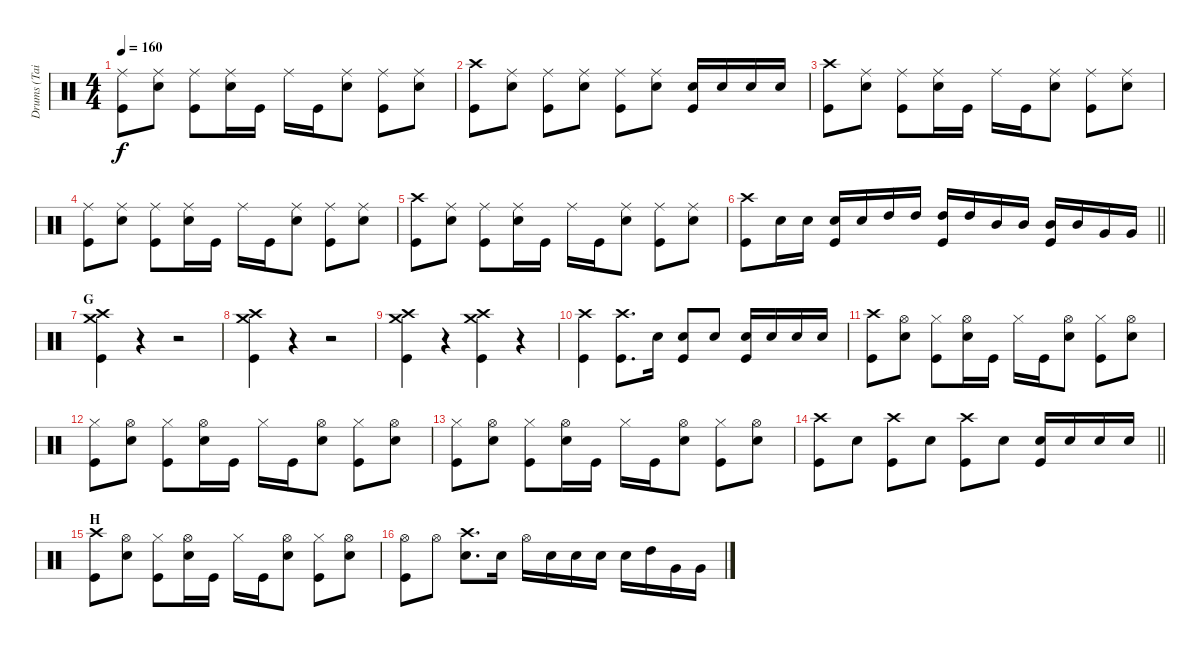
\track ("Drums (Tainaka Ritsu)" "Drums (Tai") {instrument percussion}
\staff {score}
\articulation defaults
\ts (4 4)
\tempo 160
\clef neutral
\ks c
("Ride (middle)" "Kick (hit)").8{dy f} ("Ride (middle)" "Snare (hit) 2").8 ("Ride (middle)" "Kick (hit)").8 ("Ride (middle)" "Snare (hit) 2").16 "Kick (hit)".16 "Ride (middle)".16 "Kick (hit)".16 ("Ride (middle)" "Snare (hit) 2").8 ("Ride (middle)" "Kick (hit)").8 ("Ride (middle)" "Snare (hit) 2").8 |
("Crash high (hit)" "Kick (hit)").8 ("Ride (middle)" "Snare (hit) 2").8 ("Ride (middle)" "Kick (hit)").8 ("Ride (middle)" "Snare (hit) 2").8 ("Ride (middle)" "Kick (hit)").8 ("Ride (middle)" "Snare (hit) 2").8 ("Snare (hit) 2" "Kick (hit)").16 "Snare (hit) 2".16 "Snare (hit) 2".16 "Snare (hit) 2".16 |
("Crash high (hit)" "Kick (hit)").8 ("Ride (middle)" "Snare (hit) 2").8 ("Ride (middle)" "Kick (hit)").8 ("Ride (middle)" "Snare (hit) 2").16 "Kick (hit)".16 "Ride (middle)".16 "Kick (hit)".16 ("Ride (middle)" "Snare (hit) 2").8 ("Ride (middle)" "Kick (hit)").8 ("Ride (middle)" "Snare (hit) 2").8 |
("Ride (middle)" "Kick (hit)").8 ("Ride (middle)" "Snare (hit) 2").8 ("Ride (middle)" "Kick (hit)").8 ("Ride (middle)" "Snare (hit) 2").16 "Kick (hit)".16 "Ride (middle)".16 "Kick (hit)".16 ("Ride (middle)" "Snare (hit) 2").8 ("Ride (middle)" "Kick (hit)").8 ("Ride (middle)" "Snare (hit) 2").8 |
("Crash high (hit)" "Kick (hit)").8 ("Ride (middle)" "Snare (hit) 2").8 ("Ride (middle)" "Kick (hit)").8 ("Ride (middle)" "Snare (hit) 2").16 "Kick (hit)".16 "Ride (middle)".16 "Kick (hit)".16 ("Ride (middle)" "Snare (hit) 2").8 ("Ride (middle)" "Kick (hit)").8 ("Ride (middle)" "Snare (hit) 2").8 |
\barLineRight lightlight
("Crash high (hit)" "Kick (hit)").8 "Snare (hit) 2".16 "Snare (hit) 2".16 ("Snare (hit) 2" "Kick (hit)").16 "Snare (hit) 2".16 "High Tom (hit)".16 "High Tom (hit)".16 ("High Tom (hit)" "Kick (hit)").16 "High Tom (hit)".16 "Mid Tom (hit)".16 "Mid Tom (hit)".16 ("Mid Tom (hit)" "Kick (hit)").16 "Mid Tom (hit)".16 "Very Low Tom (hit)".16 "Very Low Tom (hit)".16 |
\section ("" "G")
("Crash high (hit)" "Crash medium (hit)" "Kick (hit)").4 r.4 r.2 |
("Crash high (hit)" "Crash medium (hit)" "Kick (hit)").4 r.4 r.2 |
("Crash high (hit)" "Crash medium (hit)" "Kick (hit)").4 r.4 ("Crash high (hit)" "Crash medium (hit)" "Kick (hit)").4 r.4 |
("Crash high (hit)" "Kick (hit)").4 ("Crash high (hit)" "Kick (hit)").8{d} "Snare (hit) 2".16 ("Snare (hit) 2" "Kick (hit)").8 "Snare (hit) 2".8 ("Snare (hit) 2" "Kick (hit)").16 "Snare (hit) 2".16 "Snare (hit) 2".16 "Snare (hit) 2".16 |
("Crash high (hit)" "Kick (hit)").8 ("Hi-Hat (open)" "Snare (hit) 2").8 ("Hi-Hat (closed)" "Kick (hit)").8 ("Hi-Hat (open)" "Snare (hit) 2").16 "Kick (hit)".16 "Hi-Hat (closed)".16 "Kick (hit)".16 ("Hi-Hat (open)" "Snare (hit) 2").8 ("Hi-Hat (closed)" "Kick (hit)").8 ("Hi-Hat (open)" "Snare (hit) 2").8 |
("Hi-Hat (closed)" "Kick (hit)").8 ("Hi-Hat (open)" "Snare (hit) 2").8 ("Hi-Hat (closed)" "Kick (hit)").8 ("Hi-Hat (open)" "Snare (hit) 2").16 "Kick (hit)".16 "Hi-Hat (closed)".16 "Kick (hit)".16 ("Hi-Hat (open)" "Snare (hit) 2").8 ("Hi-Hat (closed)" "Kick (hit)").8 ("Hi-Hat (open)" "Snare (hit) 2").8 |
("Hi-Hat (closed)" "Kick (hit)").8 ("Hi-Hat (open)" "Snare (hit) 2").8 ("Hi-Hat (closed)" "Kick (hit)").8 ("Hi-Hat (open)" "Snare (hit) 2").16 "Kick (hit)".16 "Hi-Hat (closed)".16 "Kick (hit)".16 ("Hi-Hat (open)" "Snare (hit) 2").8 ("Hi-Hat (closed)" "Kick (hit)").8 ("Hi-Hat (open)" "Snare (hit) 2").8 |
\barLineRight lightlight
("Crash high (hit)" "Kick (hit)").8 "Snare (hit) 2".8 ("Crash high (hit)" "Kick (hit)").8 "Snare (hit) 2".8 ("Crash high (hit)" "Kick (hit)").8 "Snare (hit) 2".8 ("Snare (hit) 2" "Kick (hit)").16 "Snare (hit) 2".16 "Snare (hit) 2".16 "Snare (hit) 2".16 |
\section ("" "H")
("Crash high (hit)" "Kick (hit)").8 ("Hi-Hat (open)" "Snare (hit) 2").8 ("Hi-Hat (closed)" "Kick (hit)").8 ("Hi-Hat (open)" "Snare (hit) 2").16 "Kick (hit)".16 "Hi-Hat (closed)".16 "Kick (hit)".16 ("Hi-Hat (open)" "Snare (hit) 2").8 ("Hi-Hat (closed)" "Kick (hit)").8 ("Hi-Hat (open)" "Snare (hit) 2").8 |
("Hi-Hat (open)" "Kick (hit)").8 "Hi-Hat (open)".8 ("Crash high (hit)" "Snare (hit) 2").8{d} "Snare (hit) 2".16 "Hi-Hat (open)".16 "Snare (hit) 2".16 "Snare (hit) 2".16 "Snare (hit) 2".16 "Snare (hit) 2".16 "High Tom (hit)".16 "Very Low Tom (hit)".16 "Very Low Tom (hit)".16
